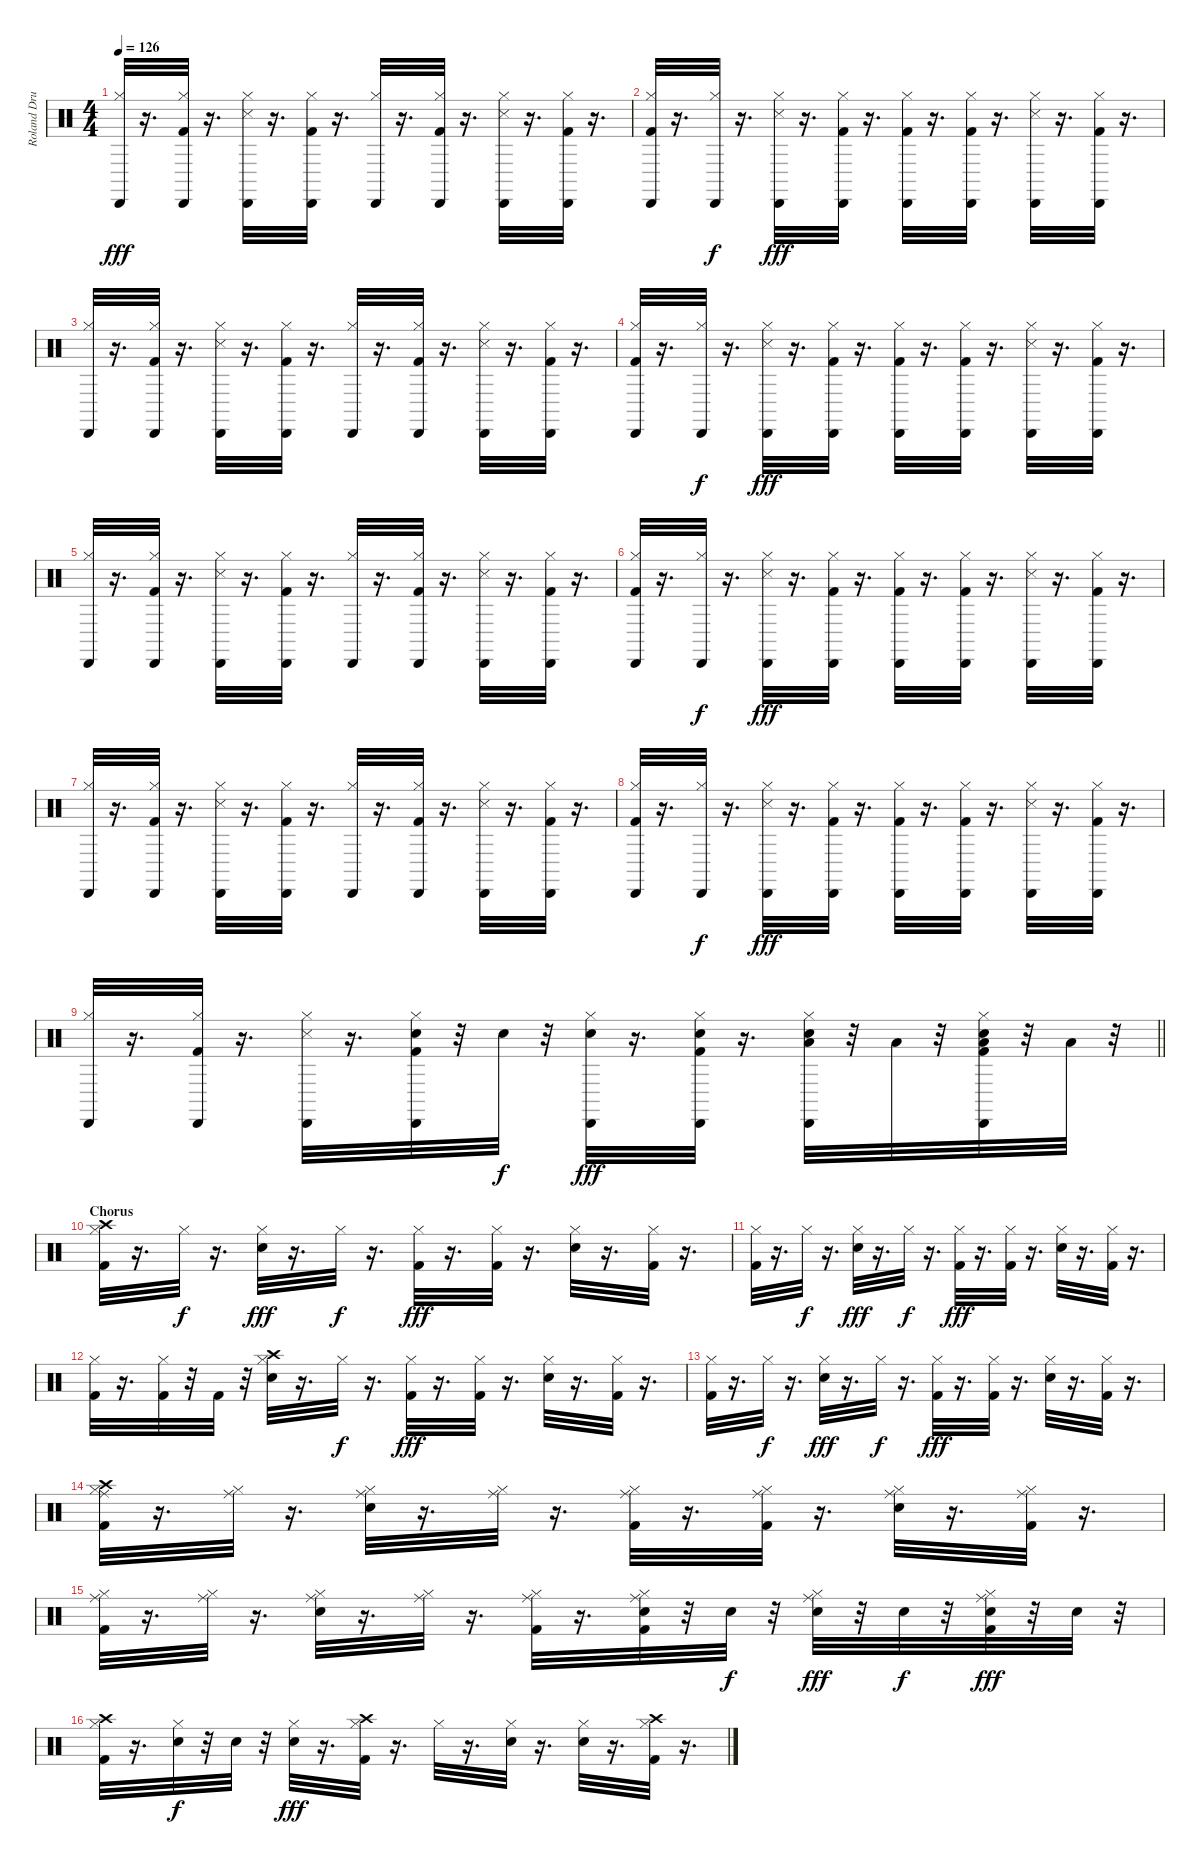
\track ("Roland Drums" "Roland Dru") {instrument percussion}
\staff {score}
\articulation defaults
\ts (4 4)
\tempo 126
\clef neutral
\ks c
("Hi-Hat (closed)" "Cabasa (hit)").32{dy fff} r.16{d} ("Kick (hit) 2" "Hi-Hat (closed)" "Cabasa (hit)").32 r.16{d} ("Hi-Hat (closed)" "Snare (side stick) 3" "Cabasa (hit)").32 r.16{d} ("Kick (hit) 2" "Hi-Hat (closed)" "Cabasa (hit)").32 r.16{d} ("Hi-Hat (closed)" "Cabasa (hit)").32 r.16{d} ("Kick (hit) 2" "Hi-Hat (closed)" "Cabasa (hit)").32 r.16{d} ("Hi-Hat (closed)" "Snare (side stick) 3" "Cabasa (hit)").32 r.16{d} ("Kick (hit) 2" "Hi-Hat (closed)" "Cabasa (hit)").32 r.16{d} |
("Kick (hit) 2" "Hi-Hat (closed)" "Cabasa (hit)").32 r.16{d} ("Hi-Hat (closed)" "Cabasa (hit)").32{dy f} r.16{d} ("Hi-Hat (closed)" "Snare (side stick) 3" "Cabasa (hit)").32{dy fff} r.16{d} ("Kick (hit) 2" "Hi-Hat (closed)" "Cabasa (hit)").32 r.16{d} ("Kick (hit) 2" "Hi-Hat (closed)" "Cabasa (hit)").32 r.16{d} ("Kick (hit) 2" "Hi-Hat (closed)" "Cabasa (hit)").32 r.16{d} ("Hi-Hat (closed)" "Snare (side stick) 3" "Cabasa (hit)").32 r.16{d} ("Kick (hit) 2" "Hi-Hat (closed)" "Cabasa (hit)").32 r.16{d} |
("Hi-Hat (closed)" "Cabasa (hit)").32 r.16{d} ("Kick (hit) 2" "Hi-Hat (closed)" "Cabasa (hit)").32 r.16{d} ("Hi-Hat (closed)" "Snare (side stick) 3" "Cabasa (hit)").32 r.16{d} ("Kick (hit) 2" "Hi-Hat (closed)" "Cabasa (hit)").32 r.16{d} ("Hi-Hat (closed)" "Cabasa (hit)").32 r.16{d} ("Kick (hit) 2" "Hi-Hat (closed)" "Cabasa (hit)").32 r.16{d} ("Hi-Hat (closed)" "Snare (side stick) 3" "Cabasa (hit)").32 r.16{d} ("Kick (hit) 2" "Hi-Hat (closed)" "Cabasa (hit)").32 r.16{d} |
("Kick (hit) 2" "Hi-Hat (closed)" "Cabasa (hit)").32 r.16{d} ("Hi-Hat (closed)" "Cabasa (hit)").32{dy f} r.16{d} ("Hi-Hat (closed)" "Snare (side stick) 3" "Cabasa (hit)").32{dy fff} r.16{d} ("Kick (hit) 2" "Hi-Hat (closed)" "Cabasa (hit)").32 r.16{d} ("Kick (hit) 2" "Hi-Hat (closed)" "Cabasa (hit)").32 r.16{d} ("Kick (hit) 2" "Hi-Hat (closed)" "Cabasa (hit)").32 r.16{d} ("Hi-Hat (closed)" "Snare (side stick) 3" "Cabasa (hit)").32 r.16{d} ("Kick (hit) 2" "Hi-Hat (closed)" "Cabasa (hit)").32 r.16{d} |
("Hi-Hat (closed)" "Cabasa (hit)").32 r.16{d} ("Kick (hit) 2" "Hi-Hat (closed)" "Cabasa (hit)").32 r.16{d} ("Hi-Hat (closed)" "Snare (side stick) 3" "Cabasa (hit)").32 r.16{d} ("Kick (hit) 2" "Hi-Hat (closed)" "Cabasa (hit)").32 r.16{d} ("Hi-Hat (closed)" "Cabasa (hit)").32 r.16{d} ("Kick (hit) 2" "Hi-Hat (closed)" "Cabasa (hit)").32 r.16{d} ("Hi-Hat (closed)" "Snare (side stick) 3" "Cabasa (hit)").32 r.16{d} ("Kick (hit) 2" "Hi-Hat (closed)" "Cabasa (hit)").32 r.16{d} |
("Kick (hit) 2" "Hi-Hat (closed)" "Cabasa (hit)").32 r.16{d} ("Hi-Hat (closed)" "Cabasa (hit)").32{dy f} r.16{d} ("Hi-Hat (closed)" "Snare (side stick) 3" "Cabasa (hit)").32{dy fff} r.16{d} ("Kick (hit) 2" "Hi-Hat (closed)" "Cabasa (hit)").32 r.16{d} ("Kick (hit) 2" "Hi-Hat (closed)" "Cabasa (hit)").32 r.16{d} ("Kick (hit) 2" "Hi-Hat (closed)" "Cabasa (hit)").32 r.16{d} ("Hi-Hat (closed)" "Snare (side stick) 3" "Cabasa (hit)").32 r.16{d} ("Kick (hit) 2" "Hi-Hat (closed)" "Cabasa (hit)").32 r.16{d} |
("Hi-Hat (closed)" "Cabasa (hit)").32 r.16{d} ("Kick (hit) 2" "Hi-Hat (closed)" "Cabasa (hit)").32 r.16{d} ("Hi-Hat (closed)" "Snare (side stick) 3" "Cabasa (hit)").32 r.16{d} ("Kick (hit) 2" "Hi-Hat (closed)" "Cabasa (hit)").32 r.16{d} ("Hi-Hat (closed)" "Cabasa (hit)").32 r.16{d} ("Kick (hit) 2" "Hi-Hat (closed)" "Cabasa (hit)").32 r.16{d} ("Hi-Hat (closed)" "Snare (side stick) 3" "Cabasa (hit)").32 r.16{d} ("Kick (hit) 2" "Hi-Hat (closed)" "Cabasa (hit)").32 r.16{d} |
("Kick (hit) 2" "Hi-Hat (closed)" "Cabasa (hit)").32 r.16{d} ("Hi-Hat (closed)" "Cabasa (hit)").32{dy f} r.16{d} ("Hi-Hat (closed)" "Snare (side stick) 3" "Cabasa (hit)").32{dy fff} r.16{d} ("Kick (hit) 2" "Hi-Hat (closed)" "Cabasa (hit)").32 r.16{d} ("Kick (hit) 2" "Hi-Hat (closed)" "Cabasa (hit)").32 r.16{d} ("Kick (hit) 2" "Hi-Hat (closed)" "Cabasa (hit)").32 r.16{d} ("Hi-Hat (closed)" "Snare (side stick) 3" "Cabasa (hit)").32 r.16{d} ("Kick (hit) 2" "Hi-Hat (closed)" "Cabasa (hit)").32 r.16{d} |
\barLineRight lightlight
("Hi-Hat (closed)" "Cabasa (hit)").32 r.16{d} ("Kick (hit) 2" "Hi-Hat (closed)" "Cabasa (hit)").32 r.16{d} ("Hi-Hat (closed)" "Snare (side stick) 3" "Cabasa (hit)").32 r.16{d} ("Kick (hit) 2" "Snare (hit) 2" "Hi-Hat (closed)" "Cabasa (hit)").32 r.32 "Snare (hit) 2".32{dy f} r.32 ("Snare (hit) 2" "Hi-Hat (closed)" "Cabasa (hit)").32{dy fff} r.16{d} ("Kick (hit) 2" "Snare (hit) 2" "Hi-Hat (closed)" "Cabasa (hit)").32 r.16{d} ("Snare (hit) 2" "Hi-Hat (closed)" "Cabasa (hit)" "Low Tom (hit)").32 r.32 "Low Tom (hit)".32 r.32 ("Kick (hit) 2" "Snare (hit) 2" "Hi-Hat (closed)" "Cabasa (hit)" "Low Floor Tom (hit)").32 r.32 "Low Floor Tom (hit)".32 r.32 |
\section ("" "Chorus")
("Kick (hit) 2" "Hi-Hat (closed)" "Crash high (hit)").32 r.16{d} "Hi-Hat (closed)".32{dy f} r.16{d} ("Snare (hit) 2" "Hi-Hat (closed)").32{dy fff} r.16{d} "Hi-Hat (closed)".32{dy f} r.16{d} ("Kick (hit) 2" "Hi-Hat (closed)").32{dy fff} r.16{d} ("Kick (hit) 2" "Hi-Hat (closed)").32 r.16{d} ("Snare (hit) 2" "Hi-Hat (closed)").32 r.16{d} ("Kick (hit) 2" "Hi-Hat (closed)").32 r.16{d} |
("Kick (hit) 2" "Hi-Hat (closed)").32 r.16{d} "Hi-Hat (closed)".32{dy f} r.16{d} ("Snare (hit) 2" "Hi-Hat (closed)").32{dy fff} r.16{d} "Hi-Hat (closed)".32{dy f} r.16{d} ("Kick (hit) 2" "Hi-Hat (closed)").32{dy fff} r.16{d} ("Kick (hit) 2" "Hi-Hat (closed)").32 r.16{d} ("Snare (hit) 2" "Hi-Hat (closed)").32 r.16{d} ("Kick (hit) 2" "Hi-Hat (closed)").32 r.16{d} |
("Kick (hit) 2" "Hi-Hat (closed)").32 r.16{d} ("Kick (hit) 2" "Hi-Hat (closed)").32 r.32 "Kick (hit) 2".32 r.32 ("Snare (hit) 2" "Hi-Hat (closed)" "Crash high (hit)").32 r.16{d} "Hi-Hat (closed)".32{dy f} r.16{d} ("Kick (hit) 2" "Hi-Hat (closed)").32{dy fff} r.16{d} ("Kick (hit) 2" "Hi-Hat (closed)").32 r.16{d} ("Snare (hit) 2" "Hi-Hat (closed)").32 r.16{d} ("Kick (hit) 2" "Hi-Hat (closed)").32 r.16{d} |
("Kick (hit) 2" "Hi-Hat (closed)").32 r.16{d} "Hi-Hat (closed)".32{dy f} r.16{d} ("Snare (hit) 2" "Hi-Hat (closed)").32{dy fff} r.16{d} "Hi-Hat (closed)".32{dy f} r.16{d} ("Kick (hit) 2" "Hi-Hat (closed)").32{dy fff} r.16{d} ("Kick (hit) 2" "Hi-Hat (closed)").32 r.16{d} ("Snare (hit) 2" "Hi-Hat (closed)").32 r.16{d} ("Kick (hit) 2" "Hi-Hat (closed)").32 r.16{d} |
("Kick (hit) 2" "Hi-Hat (closed)" "Crash high (hit)" "Ride (middle)").32 r.16{d} ("Hi-Hat (closed)" "Ride (middle)").32 r.16{d} ("Snare (hit) 2" "Hi-Hat (closed)" "Ride (middle)").32 r.16{d} ("Hi-Hat (closed)" "Ride (middle)").32 r.16{d} ("Kick (hit) 2" "Hi-Hat (closed)" "Ride (middle)").32 r.16{d} ("Kick (hit) 2" "Hi-Hat (closed)" "Ride (middle)").32 r.16{d} ("Snare (hit) 2" "Hi-Hat (closed)" "Ride (middle)").32 r.16{d} ("Kick (hit) 2" "Hi-Hat (closed)" "Ride (middle)").32 r.16{d} |
("Kick (hit) 2" "Hi-Hat (closed)" "Ride (middle)").32 r.16{d} ("Hi-Hat (closed)" "Ride (middle)").32 r.16{d} ("Snare (hit) 2" "Hi-Hat (closed)" "Ride (middle)").32 r.16{d} ("Hi-Hat (closed)" "Ride (middle)").32 r.16{d} ("Kick (hit) 2" "Hi-Hat (closed)" "Ride (middle)").32 r.16{d} ("Kick (hit) 2" "Snare (hit) 2" "Hi-Hat (closed)" "Ride (middle)").32 r.32 "Snare (hit) 2".32{dy f} r.32 ("Snare (hit) 2" "Hi-Hat (closed)" "Ride (middle)").32{dy fff} r.32 "Snare (hit) 2".32{dy f} r.32 ("Kick (hit) 2" "Snare (hit) 2" "Hi-Hat (closed)" "Ride (middle)").32{dy fff} r.32 "Snare (hit) 2".32 r.32 |
("Kick (hit) 2" "Hi-Hat (closed)" "Crash high (hit)").32 r.16{d} ("Snare (hit) 2" "Hi-Hat (closed)").32{dy f} r.32 "Snare (hit) 2".32 r.32 ("Snare (hit) 2" "Hi-Hat (closed)").32{dy fff} r.16{d} ("Kick (hit) 2" "Hi-Hat (closed)" "Crash high (hit)").32 r.16{d} "Hi-Hat (closed)".32 r.16{d} ("Snare (hit) 2" "Hi-Hat (closed)").32 r.16{d} ("Snare (hit) 2" "Hi-Hat (closed)").32 r.16{d} ("Kick (hit) 2" "Hi-Hat (closed)" "Crash high (hit)").32 r.16{d}
